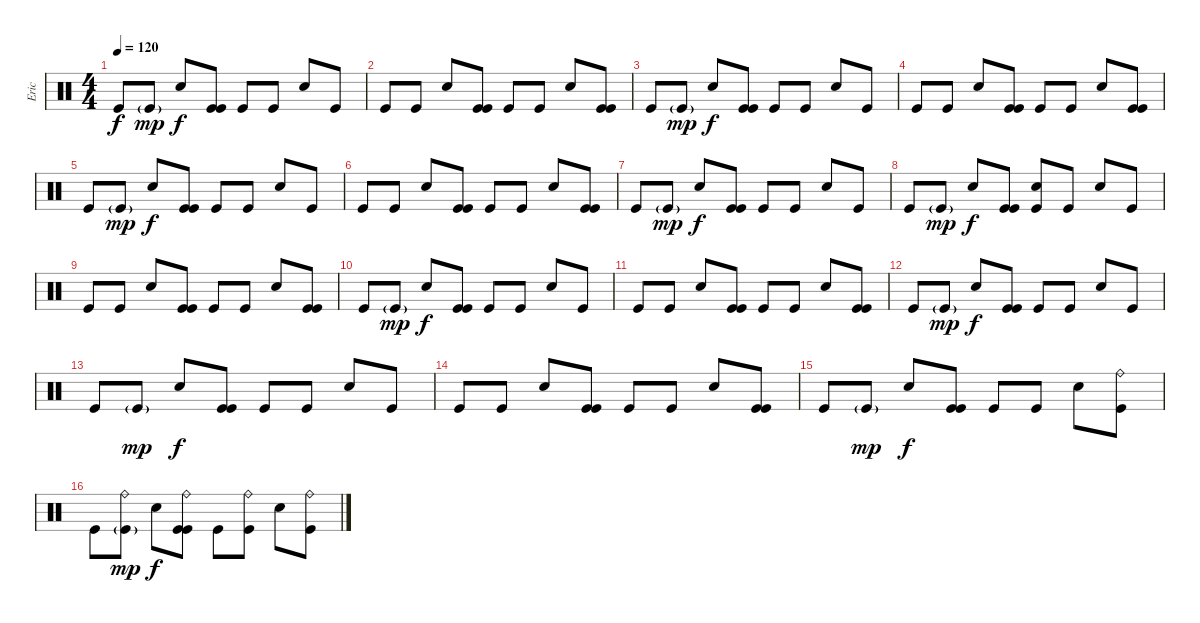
\track ("Eric" "Eric") {instrument percussion}
\staff {score}
\articulation defaults
\ts (4 4)
\tempo 120
\clef neutral
\ks c "Kick (hit)".8{dy f} "Kick (hit)"{g}.8{dy mp} "Electric Snare (hit)".8{dy f}
("Kick (hit)" "Kick (hit)").8 "Kick (hit)".8 "Kick (hit)".8 "Electric Snare (hit)".8 "Kick (hit)".8 |
"Kick (hit)".8 "Kick (hit)".8 "Electric Snare (hit)".8 ("Kick (hit)" "Kick (hit)").8 "Kick (hit)".8 "Kick (hit)".8 "Electric Snare (hit)".8 ("Kick (hit)" "Kick (hit)").8 |
"Kick (hit)".8 "Kick (hit)"{g}.8{dy mp} "Electric Snare (hit)".8{dy f} ("Kick (hit)" "Kick (hit)").8 "Kick (hit)".8 "Kick (hit)".8 "Electric Snare (hit)".8 "Kick (hit)".8 |
"Kick (hit)".8 "Kick (hit)".8 "Electric Snare (hit)".8 ("Kick (hit)" "Kick (hit)").8 "Kick (hit)".8 "Kick (hit)".8 "Electric Snare (hit)".8 ("Kick (hit)" "Kick (hit)").8 |
"Kick (hit)".8 "Kick (hit)"{g}.8{dy mp} "Electric Snare (hit)".8{dy f} ("Kick (hit)" "Kick (hit)").8 "Kick (hit)".8 "Kick (hit)".8 "Electric Snare (hit)".8 "Kick (hit)".8 |
"Kick (hit)".8 "Kick (hit)".8 "Electric Snare (hit)".8 ("Kick (hit)" "Kick (hit)").8 "Kick (hit)".8 "Kick (hit)".8 "Electric Snare (hit)".8 ("Kick (hit)" "Kick (hit)").8 |
"Kick (hit)".8 "Kick (hit)"{g}.8{dy mp} "Electric Snare (hit)".8{dy f} ("Kick (hit)" "Kick (hit)").8 "Kick (hit)".8 "Kick (hit)".8 "Electric Snare (hit)".8 "Kick (hit)".8 |
"Kick (hit)".8 "Kick (hit)"{g}.8{dy mp} "Electric Snare (hit)".8{dy f} ("Kick (hit)" "Kick (hit)").8 ("Electric Snare (hit)" "Kick (hit)").8 "Kick (hit)".8 "Electric Snare (hit)".8 "Kick (hit)".8 |
"Kick (hit)".8 "Kick (hit)".8 "Electric Snare (hit)".8 ("Kick (hit)" "Kick (hit)").8 "Kick (hit)".8 "Kick (hit)".8 "Electric Snare (hit)".8 ("Kick (hit)" "Kick (hit)").8 |
"Kick (hit)".8 "Kick (hit)"{g}.8{dy mp} "Electric Snare (hit)".8{dy f} ("Kick (hit)" "Kick (hit)").8 "Kick (hit)".8 "Kick (hit)".8 "Electric Snare (hit)".8 "Kick (hit)".8 |
"Kick (hit)".8 "Kick (hit)".8 "Electric Snare (hit)".8 ("Kick (hit)" "Kick (hit)").8 "Kick (hit)".8 "Kick (hit)".8 "Electric Snare (hit)".8 ("Kick (hit)" "Kick (hit)").8 |
"Kick (hit)".8 "Kick (hit)"{g}.8{dy mp} "Electric Snare (hit)".8{dy f} ("Kick (hit)" "Kick (hit)").8 "Kick (hit)".8 "Kick (hit)".8 "Electric Snare (hit)".8 "Kick (hit)".8 |
"Kick (hit)".8 "Kick (hit)"{g}.8{dy mp} "Electric Snare (hit)".8{dy f} ("Kick (hit)" "Kick (hit)").8 "Kick (hit)".8 "Kick (hit)".8 "Electric Snare (hit)".8 "Kick (hit)".8 |
"Kick (hit)".8 "Kick (hit)".8 "Electric Snare (hit)".8 ("Kick (hit)" "Kick (hit)").8 "Kick (hit)".8 "Kick (hit)".8 "Electric Snare (hit)".8 ("Kick (hit)" "Kick (hit)").8 |
"Kick (hit)".8 "Kick (hit)"{g}.8{dy mp} "Electric Snare (hit)".8{dy f} ("Kick (hit)" "Kick (hit)").8 "Kick (hit)".8 "Kick (hit)".8 "Electric Snare (hit)".8 ("Kick (hit)" "Ride (bell)").8 |
"Kick (hit)".8 ("Kick (hit)"{g} "Ride (bell)").8{dy mp} "Electric Snare (hit)".8{dy f} ("Kick (hit)" "Kick (hit)" "Ride (bell)").8 "Kick (hit)".8 ("Kick (hit)" "Ride (bell)").8 "Electric Snare (hit)".8 ("Kick (hit)" "Ride (bell)").8
